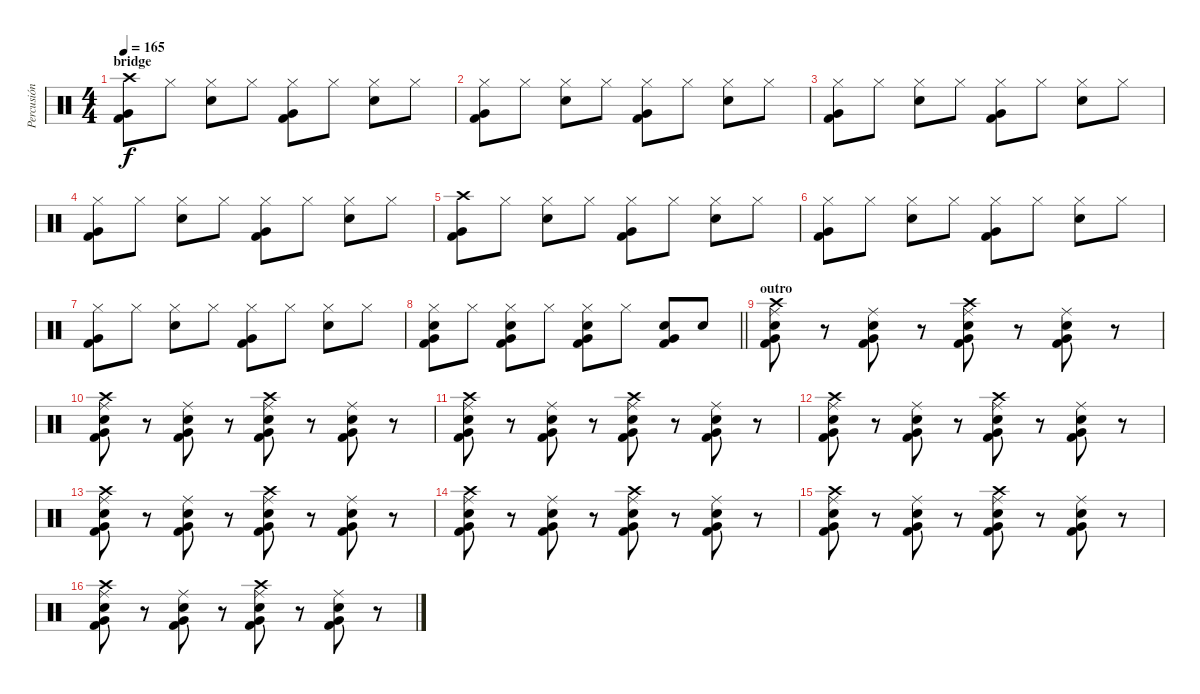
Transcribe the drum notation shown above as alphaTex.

\track ("Percusión" "Percusión") {instrument percussion}
\staff {score}
\articulation defaults
\ts (4 4)
\section ("" "bridge")
\tempo 165
\clef neutral
\ks c
("Crash high (hit)" "Kick (hit) 2" "Very Low Tom (hit)").8{dy f} "Hi-Hat (closed)".8 ("Hi-Hat (closed)" "Electric Snare (hit)").8 "Hi-Hat (closed)".8 ("Hi-Hat (closed)" "Kick (hit) 2" "Very Low Tom (hit)").8 "Hi-Hat (closed)".8 ("Hi-Hat (closed)" "Electric Snare (hit)").8 "Hi-Hat (closed)".8 |
("Hi-Hat (closed)" "Kick (hit) 2" "Very Low Tom (hit)").8 "Hi-Hat (closed)".8 ("Hi-Hat (closed)" "Electric Snare (hit)").8 "Hi-Hat (closed)".8 ("Hi-Hat (closed)" "Kick (hit) 2" "Very Low Tom (hit)").8 "Hi-Hat (closed)".8 ("Hi-Hat (closed)" "Electric Snare (hit)").8 "Hi-Hat (closed)".8 |
("Hi-Hat (closed)" "Kick (hit) 2" "Very Low Tom (hit)").8 "Hi-Hat (closed)".8 ("Hi-Hat (closed)" "Electric Snare (hit)").8 "Hi-Hat (closed)".8 ("Hi-Hat (closed)" "Kick (hit) 2" "Very Low Tom (hit)").8 "Hi-Hat (closed)".8 ("Hi-Hat (closed)" "Electric Snare (hit)").8 "Hi-Hat (closed)".8 |
("Hi-Hat (closed)" "Kick (hit) 2" "Very Low Tom (hit)").8 "Hi-Hat (closed)".8 ("Hi-Hat (closed)" "Electric Snare (hit)").8 "Hi-Hat (closed)".8 ("Hi-Hat (closed)" "Kick (hit) 2" "Very Low Tom (hit)").8 "Hi-Hat (closed)".8 ("Hi-Hat (closed)" "Electric Snare (hit)").8 "Hi-Hat (closed)".8 |
("Crash high (hit)" "Kick (hit) 2" "Very Low Tom (hit)").8 "Hi-Hat (closed)".8 ("Hi-Hat (closed)" "Electric Snare (hit)").8 "Hi-Hat (closed)".8 ("Hi-Hat (closed)" "Kick (hit) 2" "Very Low Tom (hit)").8 "Hi-Hat (closed)".8 ("Hi-Hat (closed)" "Electric Snare (hit)").8 "Hi-Hat (closed)".8 |
("Hi-Hat (closed)" "Kick (hit) 2" "Very Low Tom (hit)").8 "Hi-Hat (closed)".8 ("Hi-Hat (closed)" "Electric Snare (hit)").8 "Hi-Hat (closed)".8 ("Hi-Hat (closed)" "Kick (hit) 2" "Very Low Tom (hit)").8 "Hi-Hat (closed)".8 ("Hi-Hat (closed)" "Electric Snare (hit)").8 "Hi-Hat (closed)".8 |
("Hi-Hat (closed)" "Kick (hit) 2" "Very Low Tom (hit)").8 "Hi-Hat (closed)".8 ("Hi-Hat (closed)" "Electric Snare (hit)").8 "Hi-Hat (closed)".8 ("Hi-Hat (closed)" "Kick (hit) 2" "Very Low Tom (hit)").8 "Hi-Hat (closed)".8 ("Hi-Hat (closed)" "Electric Snare (hit)").8 "Hi-Hat (closed)".8 |
\barLineRight lightlight
("Hi-Hat (closed)" "Electric Snare (hit)" "Kick (hit) 2" "Very Low Tom (hit)").8 "Hi-Hat (closed)".8 ("Hi-Hat (closed)" "Electric Snare (hit)" "Kick (hit) 2" "Very Low Tom (hit)").8 "Hi-Hat (closed)".8 ("Hi-Hat (closed)" "Electric Snare (hit)" "Kick (hit) 2" "Very Low Tom (hit)").8 "Hi-Hat (closed)".8 ("Electric Snare (hit)" "Kick (hit) 2" "Very Low Tom (hit)").8 "Electric Snare (hit)".8 |
\section ("" "outro")
("Crash high (hit)" "Ride (middle)" "Electric Snare (hit)" "Kick (hit) 2" "Very Low Tom (hit)").8 r.8 ("Ride (middle)" "Electric Snare (hit)" "Kick (hit) 2" "Very Low Tom (hit)").8 r.8 ("Crash high (hit)" "Ride (middle)" "Electric Snare (hit)" "Kick (hit) 2" "Very Low Tom (hit)").8 r.8 ("Ride (middle)" "Electric Snare (hit)" "Kick (hit) 2" "Very Low Tom (hit)").8 r.8 |
("Crash high (hit)" "Ride (middle)" "Electric Snare (hit)" "Kick (hit) 2" "Very Low Tom (hit)").8 r.8 ("Ride (middle)" "Electric Snare (hit)" "Kick (hit) 2" "Very Low Tom (hit)").8 r.8 ("Crash high (hit)" "Ride (middle)" "Electric Snare (hit)" "Kick (hit) 2" "Very Low Tom (hit)").8 r.8 ("Ride (middle)" "Electric Snare (hit)" "Kick (hit) 2" "Very Low Tom (hit)").8 r.8 |
("Crash high (hit)" "Ride (middle)" "Electric Snare (hit)" "Kick (hit) 2" "Very Low Tom (hit)").8 r.8 ("Ride (middle)" "Electric Snare (hit)" "Kick (hit) 2" "Very Low Tom (hit)").8 r.8 ("Crash high (hit)" "Ride (middle)" "Electric Snare (hit)" "Kick (hit) 2" "Very Low Tom (hit)").8 r.8 ("Ride (middle)" "Electric Snare (hit)" "Kick (hit) 2" "Very Low Tom (hit)").8 r.8 |
("Crash high (hit)" "Ride (middle)" "Electric Snare (hit)" "Kick (hit) 2" "Very Low Tom (hit)").8 r.8 ("Ride (middle)" "Electric Snare (hit)" "Kick (hit) 2" "Very Low Tom (hit)").8 r.8 ("Crash high (hit)" "Ride (middle)" "Electric Snare (hit)" "Kick (hit) 2" "Very Low Tom (hit)").8 r.8 ("Ride (middle)" "Electric Snare (hit)" "Kick (hit) 2" "Very Low Tom (hit)").8 r.8 |
("Crash high (hit)" "Ride (middle)" "Electric Snare (hit)" "Kick (hit) 2" "Very Low Tom (hit)").8 r.8 ("Ride (middle)" "Electric Snare (hit)" "Kick (hit) 2" "Very Low Tom (hit)").8 r.8 ("Crash high (hit)" "Ride (middle)" "Electric Snare (hit)" "Kick (hit) 2" "Very Low Tom (hit)").8 r.8 ("Ride (middle)" "Electric Snare (hit)" "Kick (hit) 2" "Very Low Tom (hit)").8 r.8 |
("Crash high (hit)" "Ride (middle)" "Electric Snare (hit)" "Kick (hit) 2" "Very Low Tom (hit)").8 r.8 ("Ride (middle)" "Electric Snare (hit)" "Kick (hit) 2" "Very Low Tom (hit)").8 r.8 ("Crash high (hit)" "Ride (middle)" "Electric Snare (hit)" "Kick (hit) 2" "Very Low Tom (hit)").8 r.8 ("Ride (middle)" "Electric Snare (hit)" "Kick (hit) 2" "Very Low Tom (hit)").8 r.8 |
("Crash high (hit)" "Ride (middle)" "Electric Snare (hit)" "Kick (hit) 2" "Very Low Tom (hit)").8 r.8 ("Ride (middle)" "Electric Snare (hit)" "Kick (hit) 2" "Very Low Tom (hit)").8 r.8 ("Crash high (hit)" "Ride (middle)" "Electric Snare (hit)" "Kick (hit) 2" "Very Low Tom (hit)").8 r.8 ("Ride (middle)" "Electric Snare (hit)" "Kick (hit) 2" "Very Low Tom (hit)").8 r.8 |
("Crash high (hit)" "Ride (middle)" "Electric Snare (hit)" "Kick (hit) 2" "Very Low Tom (hit)").8 r.8 ("Ride (middle)" "Electric Snare (hit)" "Kick (hit) 2" "Very Low Tom (hit)").8 r.8 ("Crash high (hit)" "Ride (middle)" "Electric Snare (hit)" "Kick (hit) 2" "Very Low Tom (hit)").8 r.8 ("Ride (middle)" "Electric Snare (hit)" "Kick (hit) 2" "Very Low Tom (hit)").8 r.8
